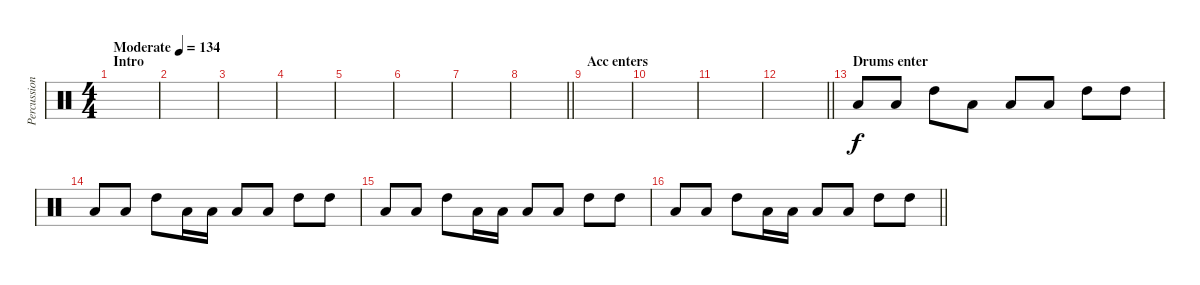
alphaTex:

\track ("Percussion" "Percussion") {instrument percussion}
\staff {score}
\articulation defaults
\ts (4 4)
\section ("" "Intro")
\tempo (134 "Moderate")
\clef neutral
\ks c
|
|
|
|
|
|
|
\barLineRight lightlight
|
\section ("" "Acc enters")
|
|
|
\barLineRight lightlight
|
\section ("" "Drums enter")
"Low Tom (hit)".8 "Low Tom (hit)".8 "High Tom (hit)".8 "Low Tom (hit)".8 "Low Tom (hit)".8 "Low Tom (hit)".8 "High Tom (hit)".8 "High Tom (hit)".8 |
"Low Tom (hit)".8 "Low Tom (hit)".8 "High Tom (hit)".8 "Low Tom (hit)".16 "Low Tom (hit)".16 "Low Tom (hit)".8 "Low Tom (hit)".8 "High Tom (hit)".8 "High Tom (hit)".8 |
"Low Tom (hit)".8 "Low Tom (hit)".8 "High Tom (hit)".8 "Low Tom (hit)".16 "Low Tom (hit)".16 "Low Tom (hit)".8 "Low Tom (hit)".8 "High Tom (hit)".8 "High Tom (hit)".8 |
\barLineRight lightlight "Low Tom (hit)".8 "Low Tom (hit)".8 "High Tom (hit)".8 "Low Tom (hit)".16 "Low Tom (hit)".16 "Low Tom (hit)".8 "Low Tom (hit)".8 "High Tom (hit)".8 "High Tom (hit)".8
